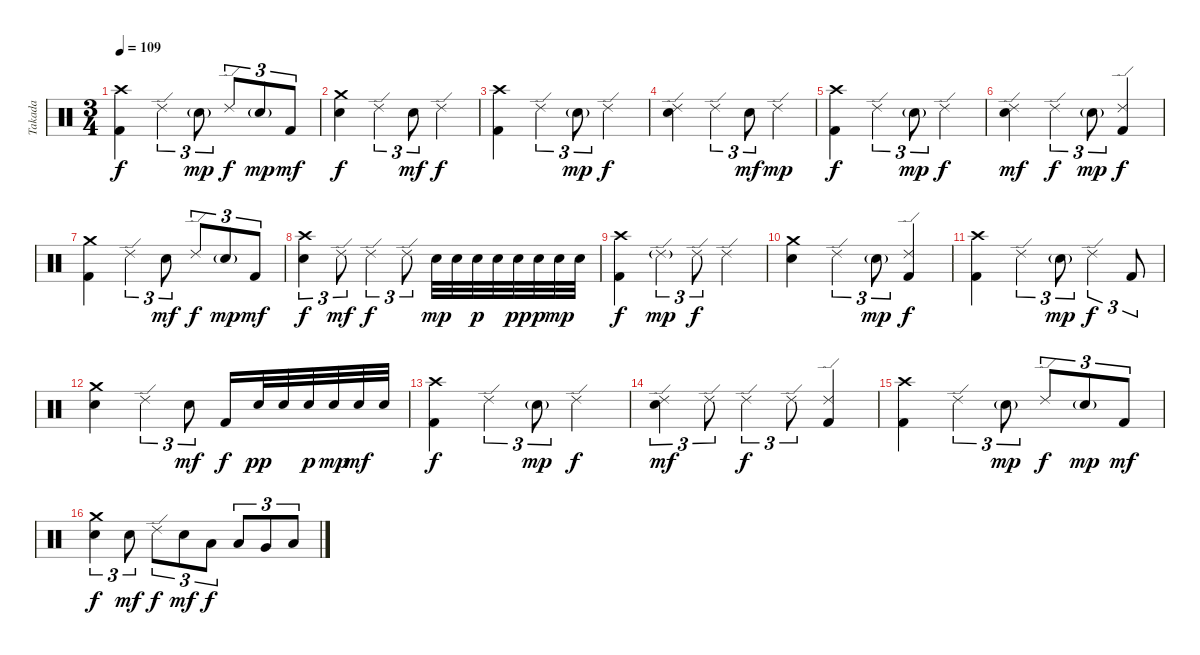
\track ("Takada" "Takada") {instrument percussion}
\staff {score}
\articulation defaults
\ts (3 4)
\tempo 109
\clef neutral
\ks c
("Crash high (hit)" "Kick (hit) 2").4{dy f} "Ride (edge) 2".4{tu (3 2)} "Electric Snare (hit)"{g}.8{tu (3 2) dy mp} "Ride (edge) 2".8{tu (3 2) dy f} "Electric Snare (hit)"{g}.8{tu (3 2) dy mp} "Kick (hit) 2".8{tu (3 2) dy mf} |
("Crash medium (hit)" "Electric Snare (hit)").4{dy f} "Ride (edge) 2".4{tu (3 2)} "Electric Snare (hit)".8{tu (3 2) dy mf} "Ride (edge) 2".4{dy f} |
("Crash high (hit)" "Kick (hit) 2").4 "Ride (edge) 2".4{tu (3 2)} "Electric Snare (hit)"{g}.8{tu (3 2) dy mp} "Ride (edge) 2".4{dy f} |
("Ride (edge) 2" "Electric Snare (hit)").4 "Ride (edge) 2".4{tu (3 2)} "Electric Snare (hit)".8{tu (3 2) dy mf} "Ride (edge) 2".4{dy mp} |
("Crash high (hit)" "Kick (hit) 2").4{dy f} "Ride (edge) 2".4{tu (3 2)} "Electric Snare (hit)"{g}.8{tu (3 2) dy mp} "Ride (edge) 2".4{dy f} |
("Ride (edge) 2" "Electric Snare (hit)").4{dy mf} "Ride (edge) 2".4{tu (3 2) dy f} "Electric Snare (hit)"{g}.8{tu (3 2) dy mp} ("Ride (edge) 2" "Kick (hit) 2").4{dy f} |
("Crash medium (hit)" "Kick (hit) 2").4 "Ride (edge) 2".4{tu (3 2)} "Electric Snare (hit)".8{tu (3 2) dy mf} "Ride (edge) 2".8{tu (3 2) dy f} "Electric Snare (hit)"{g}.8{tu (3 2) dy mp} "Kick (hit) 2".8{tu (3 2) dy mf} |
("Crash high (hit)" "Electric Snare (hit)").4{tu (3 2) dy f} "Ride (edge) 2".8{tu (3 2) dy mf} "Ride (edge) 2".4{tu (3 2) dy f} "Ride (edge) 2".8{tu (3 2)} "Electric Snare (hit)".32{dy mp} "Electric Snare (hit)".32 "Electric Snare (hit)".32{dy p} "Electric Snare (hit)".32 "Electric Snare (hit)".32{dy pp} "Electric Snare (hit)".32{dy p} "Electric Snare (hit)".32{dy mp} "Electric Snare (hit)".32 |
("Crash high (hit)" "Kick (hit) 2").4{dy f} "Ride (edge) 2"{g}.4{tu (3 2) dy mp} "Ride (edge) 2".8{tu (3 2) dy f} "Ride (edge) 2".4 |
("Crash medium (hit)" "Electric Snare (hit)").4 "Ride (edge) 2".4{tu (3 2)} "Electric Snare (hit)"{g}.8{tu (3 2) dy mp} ("Ride (edge) 2" "Kick (hit) 2").4{dy f} |
("Crash high (hit)" "Kick (hit) 2").4 "Ride (edge) 2".4{tu (3 2)} "Electric Snare (hit)"{g}.8{tu (3 2) dy mp} "Ride (edge) 2".4{tu (3 2) dy f} "Kick (hit) 2".8{tu (3 2)} |
("Crash medium (hit)" "Electric Snare (hit)").4 "Ride (edge) 2".4{tu (3 2)} "Electric Snare (hit)".8{tu (3 2) dy mf} "Kick (hit) 2".16{dy f} "Electric Snare (hit)".32{dy pp} "Electric Snare (hit)".32 "Electric Snare (hit)".32{dy p} "Electric Snare (hit)".32{dy mp} "Electric Snare (hit)".32{dy mf} "Electric Snare (hit)".32 |
("Crash high (hit)" "Kick (hit) 2").4{dy f} "Ride (edge) 2".4{tu (3 2)} "Electric Snare (hit)"{g}.8{tu (3 2) dy mp} "Ride (edge) 2".4{dy f} |
("Ride (edge) 2" "Electric Snare (hit)").4{tu (3 2) dy mf} "Ride (edge) 2".8{tu (3 2)} "Ride (edge) 2".4{tu (3 2) dy f} "Ride (edge) 2".8{tu (3 2)} ("Ride (edge) 2" "Kick (hit) 2").4 |
("Crash high (hit)" "Kick (hit) 2").4 "Ride (edge) 2".4{tu (3 2)} "Electric Snare (hit)"{g}.8{tu (3 2) dy mp} "Ride (edge) 2".8{tu (3 2) dy f} "Electric Snare (hit)"{g}.8{tu (3 2) dy mp} "Kick (hit) 2".8{tu (3 2) dy mf} |
("Crash medium (hit)" "Electric Snare (hit)").4{tu (3 2) dy f} "Electric Snare (hit)".8{tu (3 2) dy mf} "Ride (edge) 2".8{tu (3 2) dy f} "Electric Snare (hit)".8{tu (3 2) dy mf} "Low Tom (hit)".8{tu (3 2) dy f} "Low Tom (hit)".8{tu (3 2)} "Very Low Tom (hit)".8{tu (3 2)} "Low Floor Tom (hit)".8{tu (3 2)}
